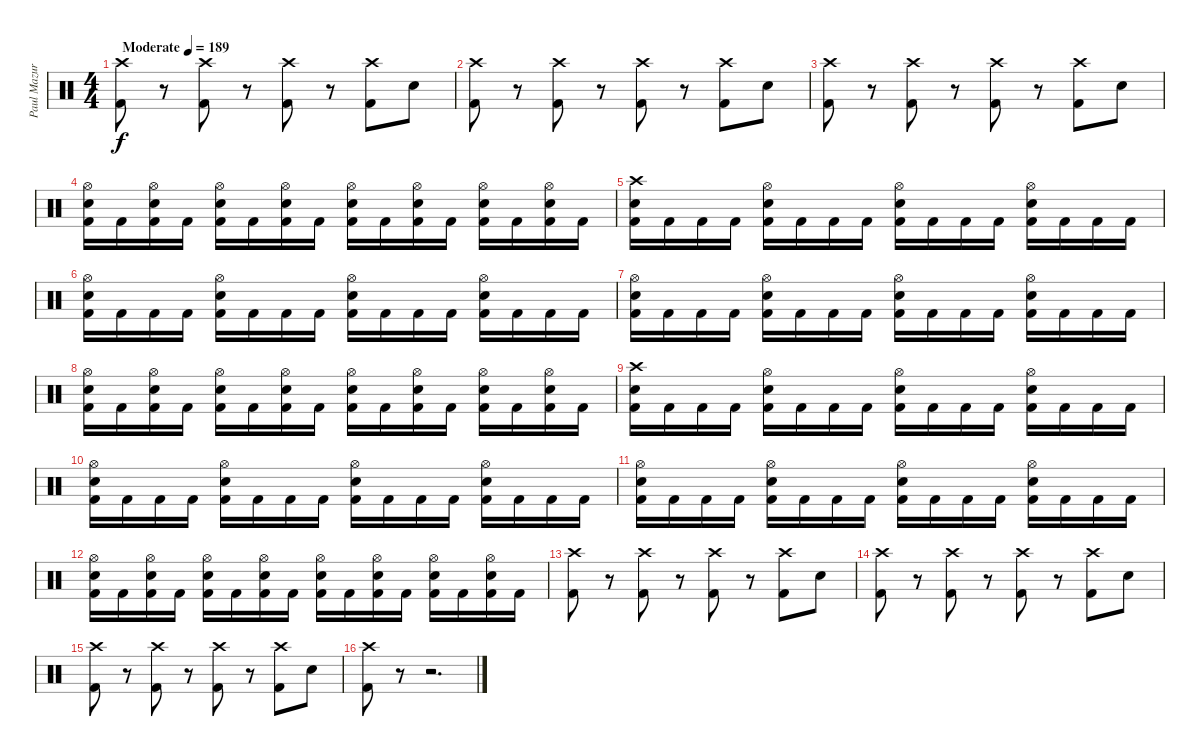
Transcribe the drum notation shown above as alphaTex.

\track ("Paul Mazurkevitch" "Paul Mazur") {instrument percussion}
\staff {score}
\articulation defaults
\ts (4 4)
\tempo (189 "Moderate")
\clef neutral
\ks c
("Crash high (hit)" "Kick (hit) 2").8{dy f} r.8{volume 0} ("Crash high (hit)" "Kick (hit) 2").8{volume 16} r.8{volume 0} ("Crash high (hit)" "Kick (hit) 2").8{volume 16} r.8{volume 0} ("Crash high (hit)" "Kick (hit) 2").8{volume 16} "Electric Snare (hit)".8 |
("Crash high (hit)" "Kick (hit) 2").8 r.8{volume 0} ("Crash high (hit)" "Kick (hit) 2").8{volume 16} r.8{volume 0} ("Crash high (hit)" "Kick (hit) 2").8{volume 16} r.8{volume 0} ("Crash high (hit)" "Kick (hit) 2").8{volume 16} "Electric Snare (hit)".8 |
("Crash high (hit)" "Kick (hit) 2").8 r.8{volume 0} ("Crash high (hit)" "Kick (hit) 2").8{volume 16} r.8{volume 0} ("Crash high (hit)" "Kick (hit) 2").8{volume 16} r.8{volume 0} ("Crash high (hit)" "Kick (hit) 2").8{volume 16} "Electric Snare (hit)".8 |
("Hi-Hat (open)" "Electric Snare (hit)" "Kick (hit) 2").16 "Kick (hit) 2".16 ("Hi-Hat (open)" "Electric Snare (hit)" "Kick (hit) 2").16 "Kick (hit) 2".16 ("Hi-Hat (open)" "Electric Snare (hit)" "Kick (hit) 2").16 "Kick (hit) 2".16 ("Hi-Hat (open)" "Electric Snare (hit)" "Kick (hit) 2").16 "Kick (hit) 2".16 ("Hi-Hat (open)" "Electric Snare (hit)" "Kick (hit) 2").16 "Kick (hit) 2".16 ("Hi-Hat (open)" "Electric Snare (hit)" "Kick (hit) 2").16 "Kick (hit) 2".16 ("Hi-Hat (open)" "Electric Snare (hit)" "Kick (hit) 2").16 "Kick (hit) 2".16 ("Hi-Hat (open)" "Electric Snare (hit)" "Kick (hit) 2").16 "Kick (hit) 2".16 |
("Crash high (hit)" "Electric Snare (hit)" "Kick (hit) 2").16 "Kick (hit) 2".16 "Kick (hit) 2".16 "Kick (hit) 2".16 ("Hi-Hat (open)" "Electric Snare (hit)" "Kick (hit) 2").16 "Kick (hit) 2".16 "Kick (hit) 2".16 "Kick (hit) 2".16 ("Hi-Hat (open)" "Electric Snare (hit)" "Kick (hit) 2").16 "Kick (hit) 2".16 "Kick (hit) 2".16 "Kick (hit) 2".16 ("Hi-Hat (open)" "Electric Snare (hit)" "Kick (hit) 2").16 "Kick (hit) 2".16 "Kick (hit) 2".16 "Kick (hit) 2".16 |
("Hi-Hat (open)" "Electric Snare (hit)" "Kick (hit) 2").16 "Kick (hit) 2".16 "Kick (hit) 2".16 "Kick (hit) 2".16 ("Hi-Hat (open)" "Electric Snare (hit)" "Kick (hit) 2").16 "Kick (hit) 2".16 "Kick (hit) 2".16 "Kick (hit) 2".16 ("Hi-Hat (open)" "Electric Snare (hit)" "Kick (hit) 2").16 "Kick (hit) 2".16 "Kick (hit) 2".16 "Kick (hit) 2".16 ("Hi-Hat (open)" "Electric Snare (hit)" "Kick (hit) 2").16 "Kick (hit) 2".16 "Kick (hit) 2".16 "Kick (hit) 2".16 |
("Hi-Hat (open)" "Electric Snare (hit)" "Kick (hit) 2").16 "Kick (hit) 2".16 "Kick (hit) 2".16 "Kick (hit) 2".16 ("Hi-Hat (open)" "Electric Snare (hit)" "Kick (hit) 2").16 "Kick (hit) 2".16 "Kick (hit) 2".16 "Kick (hit) 2".16 ("Hi-Hat (open)" "Electric Snare (hit)" "Kick (hit) 2").16 "Kick (hit) 2".16 "Kick (hit) 2".16 "Kick (hit) 2".16 ("Hi-Hat (open)" "Electric Snare (hit)" "Kick (hit) 2").16 "Kick (hit) 2".16 "Kick (hit) 2".16 "Kick (hit) 2".16 |
("Hi-Hat (open)" "Electric Snare (hit)" "Kick (hit) 2").16 "Kick (hit) 2".16 ("Hi-Hat (open)" "Electric Snare (hit)" "Kick (hit) 2").16 "Kick (hit) 2".16 ("Hi-Hat (open)" "Electric Snare (hit)" "Kick (hit) 2").16 "Kick (hit) 2".16 ("Hi-Hat (open)" "Electric Snare (hit)" "Kick (hit) 2").16 "Kick (hit) 2".16 ("Hi-Hat (open)" "Electric Snare (hit)" "Kick (hit) 2").16 "Kick (hit) 2".16 ("Hi-Hat (open)" "Electric Snare (hit)" "Kick (hit) 2").16 "Kick (hit) 2".16 ("Hi-Hat (open)" "Electric Snare (hit)" "Kick (hit) 2").16 "Kick (hit) 2".16 ("Hi-Hat (open)" "Electric Snare (hit)" "Kick (hit) 2").16 "Kick (hit) 2".16 |
("Crash high (hit)" "Electric Snare (hit)" "Kick (hit) 2").16 "Kick (hit) 2".16 "Kick (hit) 2".16 "Kick (hit) 2".16 ("Hi-Hat (open)" "Electric Snare (hit)" "Kick (hit) 2").16 "Kick (hit) 2".16 "Kick (hit) 2".16 "Kick (hit) 2".16 ("Hi-Hat (open)" "Electric Snare (hit)" "Kick (hit) 2").16 "Kick (hit) 2".16 "Kick (hit) 2".16 "Kick (hit) 2".16 ("Hi-Hat (open)" "Electric Snare (hit)" "Kick (hit) 2").16 "Kick (hit) 2".16 "Kick (hit) 2".16 "Kick (hit) 2".16 |
("Hi-Hat (open)" "Electric Snare (hit)" "Kick (hit) 2").16 "Kick (hit) 2".16 "Kick (hit) 2".16 "Kick (hit) 2".16 ("Hi-Hat (open)" "Electric Snare (hit)" "Kick (hit) 2").16 "Kick (hit) 2".16 "Kick (hit) 2".16 "Kick (hit) 2".16 ("Hi-Hat (open)" "Electric Snare (hit)" "Kick (hit) 2").16 "Kick (hit) 2".16 "Kick (hit) 2".16 "Kick (hit) 2".16 ("Hi-Hat (open)" "Electric Snare (hit)" "Kick (hit) 2").16 "Kick (hit) 2".16 "Kick (hit) 2".16 "Kick (hit) 2".16 |
("Hi-Hat (open)" "Electric Snare (hit)" "Kick (hit) 2").16 "Kick (hit) 2".16 "Kick (hit) 2".16 "Kick (hit) 2".16 ("Hi-Hat (open)" "Electric Snare (hit)" "Kick (hit) 2").16 "Kick (hit) 2".16 "Kick (hit) 2".16 "Kick (hit) 2".16 ("Hi-Hat (open)" "Electric Snare (hit)" "Kick (hit) 2").16 "Kick (hit) 2".16 "Kick (hit) 2".16 "Kick (hit) 2".16 ("Hi-Hat (open)" "Electric Snare (hit)" "Kick (hit) 2").16 "Kick (hit) 2".16 "Kick (hit) 2".16 "Kick (hit) 2".16 |
("Hi-Hat (open)" "Electric Snare (hit)" "Kick (hit) 2").16 "Kick (hit) 2".16 ("Hi-Hat (open)" "Electric Snare (hit)" "Kick (hit) 2").16 "Kick (hit) 2".16 ("Hi-Hat (open)" "Electric Snare (hit)" "Kick (hit) 2").16 "Kick (hit) 2".16 ("Hi-Hat (open)" "Electric Snare (hit)" "Kick (hit) 2").16 "Kick (hit) 2".16 ("Hi-Hat (open)" "Electric Snare (hit)" "Kick (hit) 2").16 "Kick (hit) 2".16 ("Hi-Hat (open)" "Electric Snare (hit)" "Kick (hit) 2").16 "Kick (hit) 2".16 ("Hi-Hat (open)" "Electric Snare (hit)" "Kick (hit) 2").16 "Kick (hit) 2".16 ("Hi-Hat (open)" "Electric Snare (hit)" "Kick (hit) 2").16 "Kick (hit) 2".16 |
("Crash high (hit)" "Kick (hit) 2").8 r.8{volume 0} ("Crash high (hit)" "Kick (hit) 2").8{volume 16} r.8{volume 0} ("Crash high (hit)" "Kick (hit) 2").8{volume 16} r.8{volume 0} ("Crash high (hit)" "Kick (hit) 2").8{volume 16} "Electric Snare (hit)".8 |
("Crash high (hit)" "Kick (hit) 2").8 r.8{volume 0} ("Crash high (hit)" "Kick (hit) 2").8{volume 16} r.8{volume 0} ("Crash high (hit)" "Kick (hit) 2").8{volume 16} r.8{volume 0} ("Crash high (hit)" "Kick (hit) 2").8{volume 16} "Electric Snare (hit)".8 |
("Crash high (hit)" "Kick (hit) 2").8 r.8{volume 0} ("Crash high (hit)" "Kick (hit) 2").8{volume 16} r.8{volume 0} ("Crash high (hit)" "Kick (hit) 2").8{volume 16} r.8{volume 0} ("Crash high (hit)" "Kick (hit) 2").8{volume 16} "Electric Snare (hit)".8 |
("Crash high (hit)" "Kick (hit) 2").8 r.8{volume 0} r.2{d volume 16}
